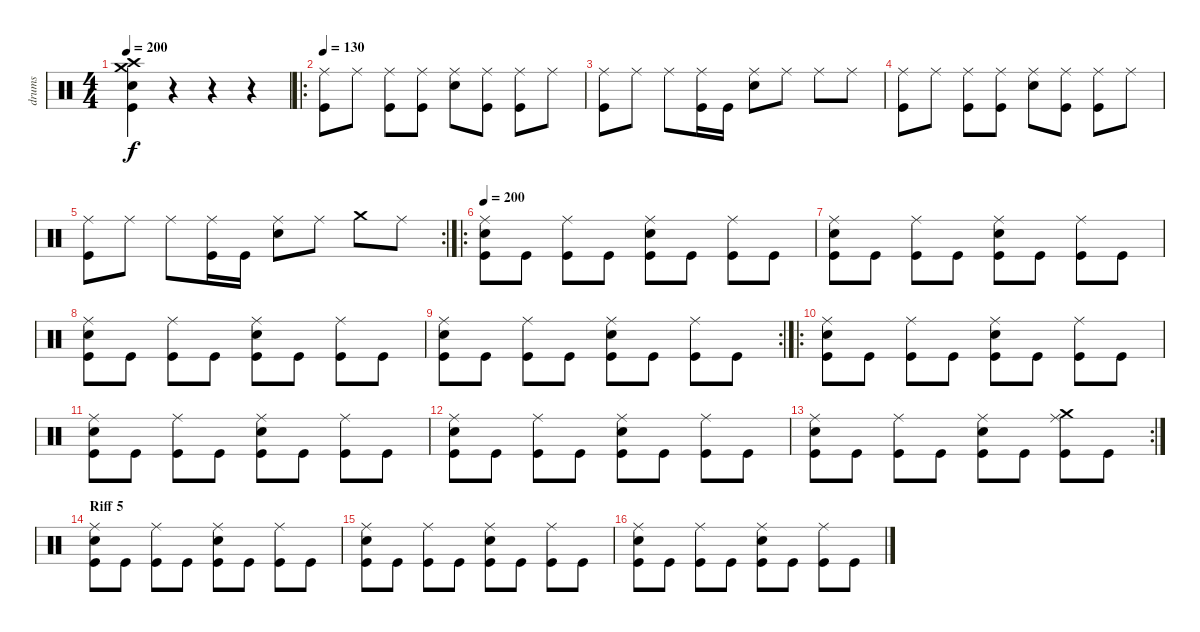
\track ("drums" "drums") {instrument percussion}
\staff {score}
\articulation defaults
\ts (4 4)
\tempo 200
\clef neutral
\ks c
("Crash high (hit)" "Crash medium (hit)" "Snare (hit) 2" "Kick (hit)").4{dy f} r.4 r.4 r.4 |
\ro
\tempo 130
("Ride (middle)" "Kick (hit)").8 "Ride (middle)".8 ("Ride (middle)" "Kick (hit)").8 ("Ride (middle)" "Kick (hit)").8 ("Snare (hit) 2" "Ride (middle)").8 ("Ride (middle)" "Kick (hit)").8 ("Ride (middle)" "Kick (hit)").8 "Ride (middle)".8 |
("Ride (middle)" "Kick (hit)").8 "Ride (middle)".8 "Ride (middle)".8 ("Ride (middle)" "Kick (hit)").16 "Kick (hit)".16 ("Snare (hit) 2" "Ride (middle)").8 "Ride (middle)".8 "Ride (middle)".8 "Ride (middle)".8 |
("Ride (middle)" "Kick (hit)").8 "Ride (middle)".8 ("Ride (middle)" "Kick (hit)").8 ("Ride (middle)" "Kick (hit)").8 ("Snare (hit) 2" "Ride (middle)").8 ("Ride (middle)" "Kick (hit)").8 ("Ride (middle)" "Kick (hit)").8 "Ride (middle)".8 |
\rc 2
("Ride (middle)" "Kick (hit)").8 "Ride (middle)".8 "Ride (middle)".8 ("Ride (middle)" "Kick (hit)").16 "Kick (hit)".16 ("Snare (hit) 2" "Ride (middle)").8 "Ride (middle)".8 "Crash medium (hit)".8 "Ride (middle)".8 |
\ro
\tempo 200
("Ride (middle)" "Snare (hit) 2" "Kick (hit)").8 "Kick (hit)".8 ("Ride (middle)" "Kick (hit)").8 "Kick (hit)".8 ("Ride (middle)" "Snare (hit) 2" "Kick (hit)").8 "Kick (hit)".8 ("Ride (middle)" "Kick (hit)").8 "Kick (hit)".8 |
("Ride (middle)" "Snare (hit) 2" "Kick (hit)").8 "Kick (hit)".8 ("Ride (middle)" "Kick (hit)").8 "Kick (hit)".8 ("Ride (middle)" "Snare (hit) 2" "Kick (hit)").8 "Kick (hit)".8 ("Ride (middle)" "Kick (hit)").8 "Kick (hit)".8 |
("Ride (middle)" "Snare (hit) 2" "Kick (hit)").8 "Kick (hit)".8 ("Ride (middle)" "Kick (hit)").8 "Kick (hit)".8 ("Ride (middle)" "Snare (hit) 2" "Kick (hit)").8 "Kick (hit)".8 ("Ride (middle)" "Kick (hit)").8 "Kick (hit)".8 |
\rc 2
("Ride (middle)" "Snare (hit) 2" "Kick (hit)").8 "Kick (hit)".8 ("Ride (middle)" "Kick (hit)").8 "Kick (hit)".8 ("Ride (middle)" "Snare (hit) 2" "Kick (hit)").8 "Kick (hit)".8 ("Ride (middle)" "Kick (hit)").8 "Kick (hit)".8 |
\ro
("Ride (middle)" "Snare (hit) 2" "Kick (hit)").8 "Kick (hit)".8 ("Ride (middle)" "Kick (hit)").8 "Kick (hit)".8 ("Ride (middle)" "Snare (hit) 2" "Kick (hit)").8 "Kick (hit)".8 ("Ride (middle)" "Kick (hit)").8 "Kick (hit)".8 |
("Ride (middle)" "Snare (hit) 2" "Kick (hit)").8 "Kick (hit)".8 ("Ride (middle)" "Kick (hit)").8 "Kick (hit)".8 ("Ride (middle)" "Snare (hit) 2" "Kick (hit)").8 "Kick (hit)".8 ("Ride (middle)" "Kick (hit)").8 "Kick (hit)".8 |
("Ride (middle)" "Snare (hit) 2" "Kick (hit)").8 "Kick (hit)".8 ("Ride (middle)" "Kick (hit)").8 "Kick (hit)".8 ("Ride (middle)" "Snare (hit) 2" "Kick (hit)").8 "Kick (hit)".8 ("Ride (middle)" "Kick (hit)").8 "Kick (hit)".8 |
\rc 2
("Ride (middle)" "Snare (hit) 2" "Kick (hit)").8 "Kick (hit)".8 ("Ride (middle)" "Kick (hit)").8 "Kick (hit)".8 ("Ride (middle)" "Snare (hit) 2" "Kick (hit)").8 "Kick (hit)".8 ("Ride (middle)" "Crash medium (hit)" "Kick (hit)").8 "Kick (hit)".8 |
\section ("" "Riff 5")
("Ride (middle)" "Snare (hit) 2" "Kick (hit)").8 "Kick (hit)".8 ("Ride (middle)" "Kick (hit)").8 "Kick (hit)".8 ("Ride (middle)" "Snare (hit) 2" "Kick (hit)").8 "Kick (hit)".8 ("Ride (middle)" "Kick (hit)").8 "Kick (hit)".8 |
("Ride (middle)" "Snare (hit) 2" "Kick (hit)").8 "Kick (hit)".8 ("Ride (middle)" "Kick (hit)").8 "Kick (hit)".8 ("Ride (middle)" "Snare (hit) 2" "Kick (hit)").8 "Kick (hit)".8 ("Ride (middle)" "Kick (hit)").8 "Kick (hit)".8 |
("Ride (middle)" "Snare (hit) 2" "Kick (hit)").8 "Kick (hit)".8 ("Ride (middle)" "Kick (hit)").8 "Kick (hit)".8 ("Ride (middle)" "Snare (hit) 2" "Kick (hit)").8 "Kick (hit)".8 ("Ride (middle)" "Kick (hit)").8 "Kick (hit)".8
